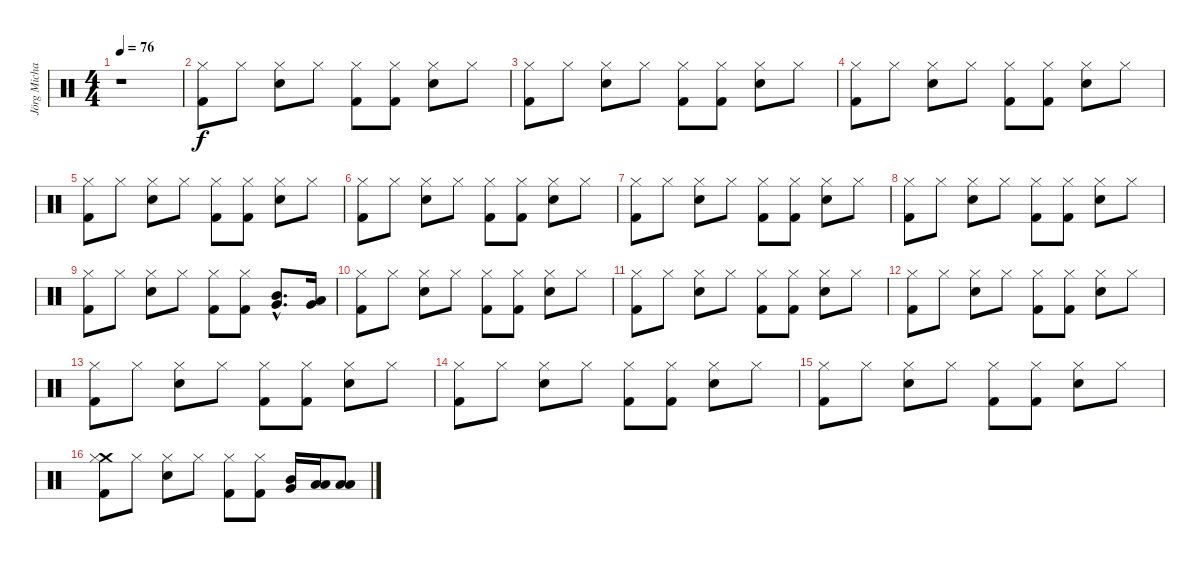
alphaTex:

\track ("Jörg Michael" "Jörg Micha") {instrument percussion}
\staff {score}
\articulation defaults
\ts (4 4)
\tempo 76
\clef neutral
\ks c
r.1{dy f} |
("Hi-Hat (closed)" "Kick (hit) 2").8 "Hi-Hat (closed)".8 ("Hi-Hat (closed)" "Electric Snare (hit)").8 "Hi-Hat (closed)".8 ("Hi-Hat (closed)" "Kick (hit) 2").8 ("Hi-Hat (closed)" "Kick (hit) 2").8 ("Hi-Hat (closed)" "Electric Snare (hit)").8 "Hi-Hat (closed)".8 |
("Hi-Hat (closed)" "Kick (hit) 2").8 "Hi-Hat (closed)".8 ("Hi-Hat (closed)" "Electric Snare (hit)").8 "Hi-Hat (closed)".8 ("Hi-Hat (closed)" "Kick (hit) 2").8 ("Hi-Hat (closed)" "Kick (hit) 2").8 ("Hi-Hat (closed)" "Electric Snare (hit)").8 "Hi-Hat (closed)".8 |
("Hi-Hat (closed)" "Kick (hit) 2").8 "Hi-Hat (closed)".8 ("Hi-Hat (closed)" "Electric Snare (hit)").8 "Hi-Hat (closed)".8 ("Hi-Hat (closed)" "Kick (hit) 2").8 ("Hi-Hat (closed)" "Kick (hit) 2").8 ("Hi-Hat (closed)" "Electric Snare (hit)").8 "Hi-Hat (closed)".8 |
("Hi-Hat (closed)" "Kick (hit) 2").8 "Hi-Hat (closed)".8 ("Hi-Hat (closed)" "Electric Snare (hit)").8 "Hi-Hat (closed)".8 ("Hi-Hat (closed)" "Kick (hit) 2").8 ("Hi-Hat (closed)" "Kick (hit) 2").8 ("Hi-Hat (closed)" "Electric Snare (hit)").8 "Hi-Hat (closed)".8 |
("Hi-Hat (closed)" "Kick (hit) 2").8 "Hi-Hat (closed)".8 ("Hi-Hat (closed)" "Electric Snare (hit)").8 "Hi-Hat (closed)".8 ("Hi-Hat (closed)" "Kick (hit) 2").8 ("Hi-Hat (closed)" "Kick (hit) 2").8 ("Hi-Hat (closed)" "Electric Snare (hit)").8 "Hi-Hat (closed)".8 |
("Hi-Hat (closed)" "Kick (hit) 2").8 "Hi-Hat (closed)".8 ("Hi-Hat (closed)" "Electric Snare (hit)").8 "Hi-Hat (closed)".8 ("Hi-Hat (closed)" "Kick (hit) 2").8 ("Hi-Hat (closed)" "Kick (hit) 2").8 ("Hi-Hat (closed)" "Electric Snare (hit)").8 "Hi-Hat (closed)".8 |
("Hi-Hat (closed)" "Kick (hit) 2").8 "Hi-Hat (closed)".8 ("Hi-Hat (closed)" "Electric Snare (hit)").8 "Hi-Hat (closed)".8 ("Hi-Hat (closed)" "Kick (hit) 2").8 ("Hi-Hat (closed)" "Kick (hit) 2").8 ("Hi-Hat (closed)" "Electric Snare (hit)").8 "Hi-Hat (closed)".8 |
("Hi-Hat (closed)" "Kick (hit) 2").8 "Hi-Hat (closed)".8 ("Hi-Hat (closed)" "Electric Snare (hit)").8 "Hi-Hat (closed)".8 ("Hi-Hat (closed)" "Kick (hit) 2").8 ("Hi-Hat (closed)" "Kick (hit) 2").8 ("Mid Tom (hit)"{hac} "Very Low Tom (hit)"{hac}).8{d} ("Low Tom (hit)" "Very Low Tom (hit)").16 |
("Hi-Hat (closed)" "Kick (hit) 2").8 "Hi-Hat (closed)".8 ("Hi-Hat (closed)" "Electric Snare (hit)").8 "Hi-Hat (closed)".8 ("Hi-Hat (closed)" "Kick (hit) 2").8 ("Hi-Hat (closed)" "Kick (hit) 2").8 ("Hi-Hat (closed)" "Electric Snare (hit)").8 "Hi-Hat (closed)".8 |
("Hi-Hat (closed)" "Kick (hit) 2").8 "Hi-Hat (closed)".8 ("Hi-Hat (closed)" "Electric Snare (hit)").8 "Hi-Hat (closed)".8 ("Hi-Hat (closed)" "Kick (hit) 2").8 ("Hi-Hat (closed)" "Kick (hit) 2").8 ("Hi-Hat (closed)" "Electric Snare (hit)").8 "Hi-Hat (closed)".8 |
("Hi-Hat (closed)" "Kick (hit) 2").8 "Hi-Hat (closed)".8 ("Hi-Hat (closed)" "Electric Snare (hit)").8 "Hi-Hat (closed)".8 ("Hi-Hat (closed)" "Kick (hit) 2").8 ("Hi-Hat (closed)" "Kick (hit) 2").8 ("Hi-Hat (closed)" "Electric Snare (hit)").8 "Hi-Hat (closed)".8 |
("Hi-Hat (closed)" "Kick (hit) 2").8 "Hi-Hat (closed)".8 ("Hi-Hat (closed)" "Electric Snare (hit)").8 "Hi-Hat (closed)".8 ("Hi-Hat (closed)" "Kick (hit) 2").8 ("Hi-Hat (closed)" "Kick (hit) 2").8 ("Hi-Hat (closed)" "Electric Snare (hit)").8 "Hi-Hat (closed)".8 |
("Hi-Hat (closed)" "Kick (hit) 2").8 "Hi-Hat (closed)".8 ("Hi-Hat (closed)" "Electric Snare (hit)").8 "Hi-Hat (closed)".8 ("Hi-Hat (closed)" "Kick (hit) 2").8 ("Hi-Hat (closed)" "Kick (hit) 2").8 ("Hi-Hat (closed)" "Electric Snare (hit)").8 "Hi-Hat (closed)".8 |
("Hi-Hat (closed)" "Kick (hit) 2").8 "Hi-Hat (closed)".8 ("Hi-Hat (closed)" "Electric Snare (hit)").8 "Hi-Hat (closed)".8 ("Hi-Hat (closed)" "Kick (hit) 2").8 ("Hi-Hat (closed)" "Kick (hit) 2").8 ("Hi-Hat (closed)" "Electric Snare (hit)").8 "Hi-Hat (closed)".8 |
("Crash medium (hit)" "Hi-Hat (closed)" "Kick (hit) 2").8 "Hi-Hat (closed)".8 ("Hi-Hat (closed)" "Electric Snare (hit)").8 "Hi-Hat (closed)".8 ("Hi-Hat (closed)" "Kick (hit) 2").8 ("Hi-Hat (closed)" "Kick (hit) 2").8 ("Very Low Tom (hit)" "Mid Tom (hit)").16 ("Low Floor Tom (hit)" "Low Tom (hit)").16 ("Low Floor Tom (hit)" "Low Tom (hit)").8
